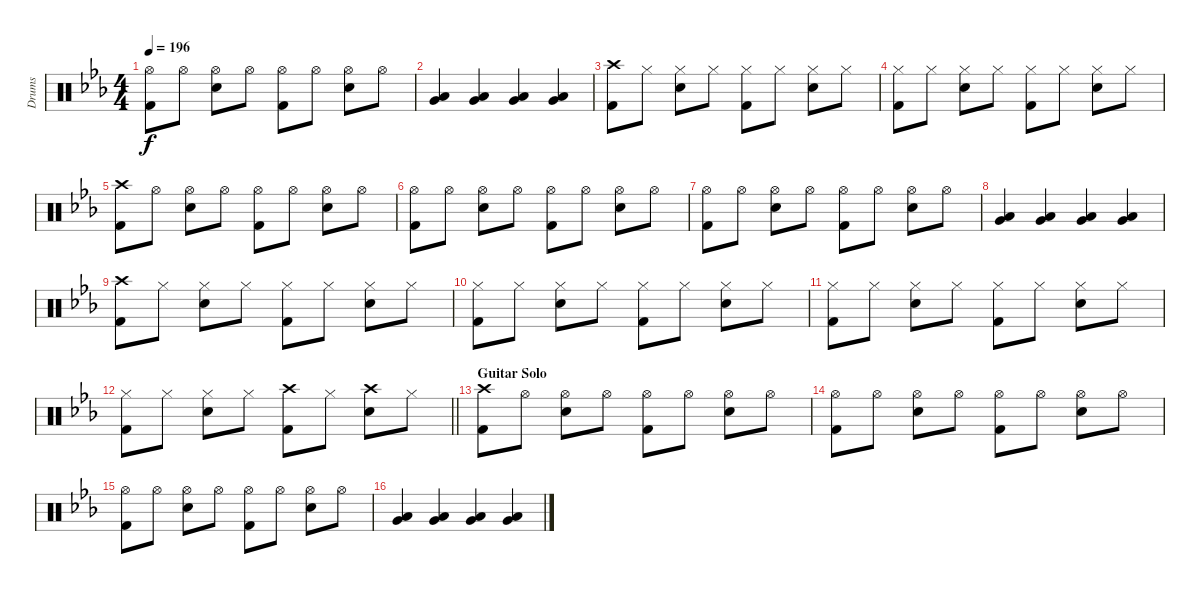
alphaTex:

\track ("Drums" "Drums") {instrument percussion}
\staff {score}
\articulation defaults
\ts (4 4)
\tempo 196
\clef neutral
\ks eb
("Hi-Hat (open)" "Kick (hit) 2").8{dy f} "Hi-Hat (open)".8 ("Hi-Hat (open)" "Snare (hit) 2").8 "Hi-Hat (open)".8 ("Hi-Hat (open)" "Kick (hit) 2").8 "Hi-Hat (open)".8 ("Hi-Hat (open)" "Snare (hit) 2").8 "Hi-Hat (open)".8 |
("Very Low Tom (hit)" "Low Floor Tom (hit)").4 ("Very Low Tom (hit)" "Low Floor Tom (hit)").4 ("Very Low Tom (hit)" "Low Floor Tom (hit)").4 ("Very Low Tom (hit)" "Low Floor Tom (hit)").4 |
("Crash high (hit)" "Kick (hit) 2").8 "Hi-Hat (closed)".8 ("Hi-Hat (closed)" "Snare (hit) 2").8 "Hi-Hat (closed)".8 ("Hi-Hat (closed)" "Kick (hit) 2").8 "Hi-Hat (closed)".8 ("Hi-Hat (closed)" "Snare (hit) 2").8 "Hi-Hat (closed)".8 |
("Hi-Hat (closed)" "Kick (hit) 2").8 "Hi-Hat (closed)".8 ("Hi-Hat (closed)" "Snare (hit) 2").8 "Hi-Hat (closed)".8 ("Hi-Hat (closed)" "Kick (hit) 2").8 "Hi-Hat (closed)".8 ("Hi-Hat (closed)" "Snare (hit) 2").8 "Hi-Hat (closed)".8 |
("Crash high (hit)" "Kick (hit) 2").8 "Hi-Hat (open)".8 ("Hi-Hat (open)" "Snare (hit) 2").8 "Hi-Hat (open)".8 ("Hi-Hat (open)" "Kick (hit) 2").8 "Hi-Hat (open)".8 ("Hi-Hat (open)" "Snare (hit) 2").8 "Hi-Hat (open)".8 |
("Hi-Hat (open)" "Kick (hit) 2").8 "Hi-Hat (open)".8 ("Hi-Hat (open)" "Snare (hit) 2").8 "Hi-Hat (open)".8 ("Hi-Hat (open)" "Kick (hit) 2").8 "Hi-Hat (open)".8 ("Hi-Hat (open)" "Snare (hit) 2").8 "Hi-Hat (open)".8 |
("Hi-Hat (open)" "Kick (hit) 2").8 "Hi-Hat (open)".8 ("Hi-Hat (open)" "Snare (hit) 2").8 "Hi-Hat (open)".8 ("Hi-Hat (open)" "Kick (hit) 2").8 "Hi-Hat (open)".8 ("Hi-Hat (open)" "Snare (hit) 2").8 "Hi-Hat (open)".8 |
("Very Low Tom (hit)" "Low Floor Tom (hit)").4 ("Very Low Tom (hit)" "Low Floor Tom (hit)").4 ("Very Low Tom (hit)" "Low Floor Tom (hit)").4 ("Very Low Tom (hit)" "Low Floor Tom (hit)").4 |
("Crash high (hit)" "Kick (hit) 2").8 "Hi-Hat (closed)".8 ("Hi-Hat (closed)" "Snare (hit) 2").8 "Hi-Hat (closed)".8 ("Hi-Hat (closed)" "Kick (hit) 2").8 "Hi-Hat (closed)".8 ("Hi-Hat (closed)" "Snare (hit) 2").8 "Hi-Hat (closed)".8 |
("Hi-Hat (closed)" "Kick (hit) 2").8 "Hi-Hat (closed)".8 ("Hi-Hat (closed)" "Snare (hit) 2").8 "Hi-Hat (closed)".8 ("Hi-Hat (closed)" "Kick (hit) 2").8 "Hi-Hat (closed)".8 ("Hi-Hat (closed)" "Snare (hit) 2").8 "Hi-Hat (closed)".8 |
("Hi-Hat (closed)" "Kick (hit) 2").8 "Hi-Hat (closed)".8 ("Hi-Hat (closed)" "Snare (hit) 2").8 "Hi-Hat (closed)".8 ("Hi-Hat (closed)" "Kick (hit) 2").8 "Hi-Hat (closed)".8 ("Hi-Hat (closed)" "Snare (hit) 2").8 "Hi-Hat (closed)".8 |
\barLineRight lightlight
("Hi-Hat (closed)" "Kick (hit) 2").8 "Hi-Hat (closed)".8 ("Hi-Hat (closed)" "Snare (hit) 2").8 "Hi-Hat (closed)".8 ("Crash high (hit)" "Kick (hit) 2").8 "Hi-Hat (closed)".8 ("Crash high (hit)" "Snare (hit) 2").8 "Hi-Hat (closed)".8 |
\section ("" "Guitar Solo")
("Crash high (hit)" "Kick (hit) 2").8 "Hi-Hat (open)".8 ("Hi-Hat (open)" "Snare (hit) 2").8 "Hi-Hat (open)".8 ("Hi-Hat (open)" "Kick (hit) 2").8 "Hi-Hat (open)".8 ("Hi-Hat (open)" "Snare (hit) 2").8 "Hi-Hat (open)".8 |
("Hi-Hat (open)" "Kick (hit) 2").8 "Hi-Hat (open)".8 ("Hi-Hat (open)" "Snare (hit) 2").8 "Hi-Hat (open)".8 ("Hi-Hat (open)" "Kick (hit) 2").8 "Hi-Hat (open)".8 ("Hi-Hat (open)" "Snare (hit) 2").8 "Hi-Hat (open)".8 |
("Hi-Hat (open)" "Kick (hit) 2").8 "Hi-Hat (open)".8 ("Hi-Hat (open)" "Snare (hit) 2").8 "Hi-Hat (open)".8 ("Hi-Hat (open)" "Kick (hit) 2").8 "Hi-Hat (open)".8 ("Hi-Hat (open)" "Snare (hit) 2").8 "Hi-Hat (open)".8 |
("Very Low Tom (hit)" "Low Floor Tom (hit)").4 ("Very Low Tom (hit)" "Low Floor Tom (hit)").4 ("Very Low Tom (hit)" "Low Floor Tom (hit)").4 ("Very Low Tom (hit)" "Low Floor Tom (hit)").4
